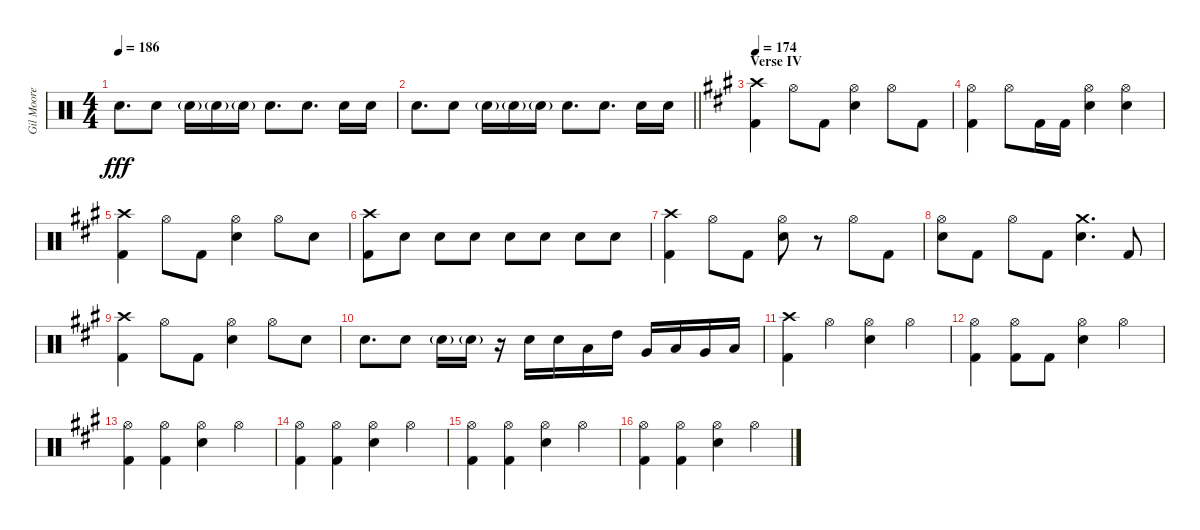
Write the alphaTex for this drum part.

\track ("Gil Moore" "Gil Moore") {instrument percussion}
\staff {score}
\articulation defaults
\ts (4 4)
\tempo 186
\clef neutral
\ks c "Snare (hit) 2".8{d dy fff} "Snare (hit) 2".8 "Snare (hit) 2"{g}.16 "Snare (hit) 2"{g}.16 "Snare (hit) 2"{g}.16 "Snare (hit) 2".8{d} "Snare (hit) 2".8{d} "Snare (hit) 2".16 "Snare (hit) 2".16
|
\barLineRight lightlight "Snare (hit) 2".8{d} "Snare (hit) 2".8 "Snare (hit) 2"{g}.16 "Snare (hit) 2"{g}.16 "Snare (hit) 2"{g}.16 "Snare (hit) 2".8{d} "Snare (hit) 2".8{d} "Snare (hit) 2".16 "Snare (hit) 2".16
|
\section ("" "Verse IV")
\tempo 174
\ks a
("Crash high (hit)" "Kick (hit) 2").4 "Hi-Hat (open)".8 "Kick (hit) 2".8 ("Hi-Hat (open)" "Snare (hit) 2").4 "Hi-Hat (open)".8 "Kick (hit) 2".8 |
("Hi-Hat (open)" "Kick (hit) 2").4 "Hi-Hat (open)".8 "Kick (hit) 2".16 "Kick (hit) 2".16 ("Hi-Hat (open)" "Snare (hit) 2").4 ("Hi-Hat (open)" "Snare (hit) 2").4 |
("Crash high (hit)" "Kick (hit) 2").4 "Hi-Hat (open)".8 "Kick (hit) 2".8 ("Hi-Hat (open)" "Snare (hit) 2").4 "Hi-Hat (open)".8 "Snare (hit) 2".8 |
("Crash high (hit)" "Kick (hit) 2").8 "Snare (hit) 2".8 "Snare (hit) 2".8 "Snare (hit) 2".8 "Snare (hit) 2".8 "Snare (hit) 2".8 "Snare (hit) 2".8 "Snare (hit) 2".8 |
("Crash high (hit)" "Kick (hit) 2").4 "Hi-Hat (open)".8 "Kick (hit) 2".8 ("Hi-Hat (open)" "Snare (hit) 2").8 r.8 "Hi-Hat (open)".8 "Kick (hit) 2".8 |
("Hi-Hat (open)" "Snare (hit) 2").8 "Kick (hit) 2".8 "Hi-Hat (open)".8 "Kick (hit) 2".8 ("Crash medium (hit)" "Snare (hit) 2").4{d} "Kick (hit) 2".8 |
("Crash high (hit)" "Kick (hit) 2").4 "Hi-Hat (open)".8 "Kick (hit) 2".8 ("Hi-Hat (open)" "Snare (hit) 2").4 "Hi-Hat (open)".8 "Snare (hit) 2".8 |
"Snare (hit) 2".8{d} "Snare (hit) 2".8 "Snare (hit) 2"{g}.16 "Snare (hit) 2"{g}.16 r.16 "Snare (hit) 2".16 "Snare (hit) 2".16 "Low Tom (hit)".16 "High Tom (hit)".16 "Very Low Tom (hit)".16 "Low Tom (hit)".16 "Very Low Tom (hit)".16 "Low Floor Tom (hit)".16 |
("Crash high (hit)" "Kick (hit) 2").4 "Hi-Hat (open)".4 ("Hi-Hat (open)" "Snare (hit) 2").4 "Hi-Hat (open)".4 |
("Hi-Hat (open)" "Kick (hit) 2").4 ("Hi-Hat (open)" "Kick (hit) 2").8 "Kick (hit) 2".8 ("Hi-Hat (open)" "Snare (hit) 2").4 "Hi-Hat (open)".4 |
("Hi-Hat (open)" "Kick (hit) 2").4 ("Hi-Hat (open)" "Kick (hit) 2").4 ("Hi-Hat (open)" "Snare (hit) 2").4 "Hi-Hat (open)".4 |
("Hi-Hat (open)" "Kick (hit) 2").4 ("Hi-Hat (open)" "Kick (hit) 2").4 ("Hi-Hat (open)" "Snare (hit) 2").4 "Hi-Hat (open)".4 |
("Hi-Hat (open)" "Kick (hit) 2").4 ("Hi-Hat (open)" "Kick (hit) 2").4 ("Hi-Hat (open)" "Snare (hit) 2").4 "Hi-Hat (open)".4 |
("Hi-Hat (open)" "Kick (hit) 2").4 ("Hi-Hat (open)" "Kick (hit) 2").4 ("Hi-Hat (open)" "Snare (hit) 2").4 "Hi-Hat (open)".4
